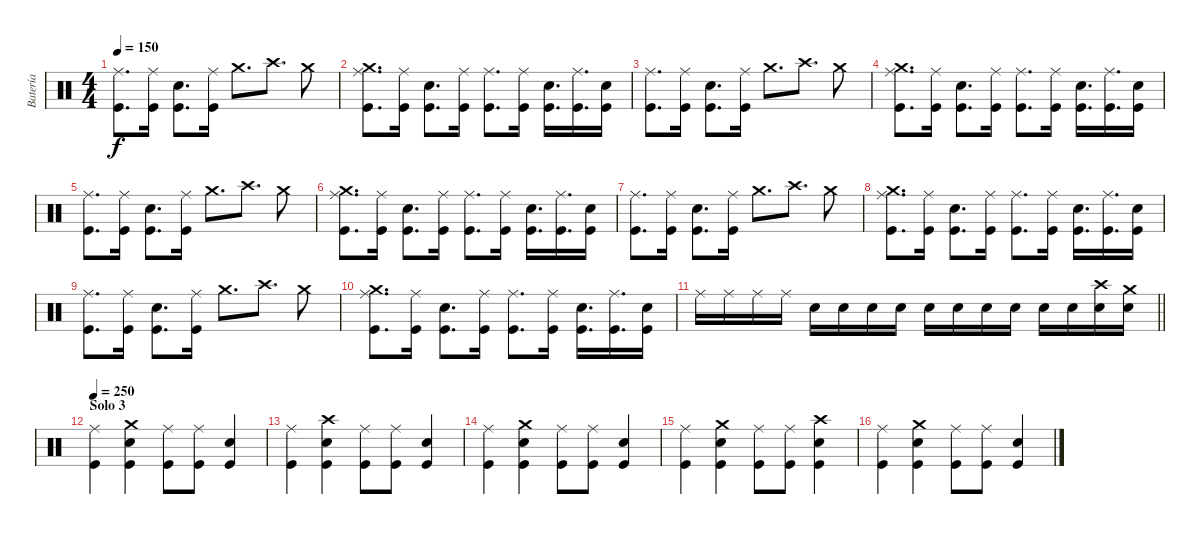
\track ("Batería" "Batería") {instrument percussion}
\staff {score}
\articulation defaults
\ts (4 4)
\tempo 150
\clef neutral
\ks c
("Ride (middle)" "Kick (hit)").8{d dy f} ("Ride (middle)" "Kick (hit)").16 ("Electric Snare (hit)" "Kick (hit)").8{d} ("Ride (middle)" "Kick (hit)").16 "Crash medium (hit)".8{d} "Crash high (hit)".8{d} "Crash medium (hit)".8 |
("Ride (middle)" "Crash medium (hit)" "Kick (hit)").8{d} ("Ride (middle)" "Kick (hit)").16 ("Electric Snare (hit)" "Kick (hit)").8{d} ("Ride (middle)" "Kick (hit)").16 ("Ride (middle)" "Kick (hit)").8{d} ("Ride (middle)" "Kick (hit)").16 ("Electric Snare (hit)" "Kick (hit)").16{d} ("Ride (middle)" "Kick (hit)").16{d} ("Electric Snare (hit)" "Kick (hit)").16 |
("Ride (middle)" "Kick (hit)").8{d} ("Ride (middle)" "Kick (hit)").16 ("Electric Snare (hit)" "Kick (hit)").8{d} ("Ride (middle)" "Kick (hit)").16 "Crash medium (hit)".8{d} "Crash high (hit)".8{d} "Crash medium (hit)".8 |
("Ride (middle)" "Crash medium (hit)" "Kick (hit)").8{d} ("Ride (middle)" "Kick (hit)").16 ("Electric Snare (hit)" "Kick (hit)").8{d} ("Ride (middle)" "Kick (hit)").16 ("Ride (middle)" "Kick (hit)").8{d} ("Ride (middle)" "Kick (hit)").16 ("Electric Snare (hit)" "Kick (hit)").16{d} ("Ride (middle)" "Kick (hit)").16{d} ("Electric Snare (hit)" "Kick (hit)").16 |
("Ride (middle)" "Kick (hit)").8{d} ("Ride (middle)" "Kick (hit)").16 ("Electric Snare (hit)" "Kick (hit)").8{d} ("Ride (middle)" "Kick (hit)").16 "Crash medium (hit)".8{d} "Crash high (hit)".8{d} "Crash medium (hit)".8 |
("Ride (middle)" "Crash medium (hit)" "Kick (hit)").8{d} ("Ride (middle)" "Kick (hit)").16 ("Electric Snare (hit)" "Kick (hit)").8{d} ("Ride (middle)" "Kick (hit)").16 ("Ride (middle)" "Kick (hit)").8{d} ("Ride (middle)" "Kick (hit)").16 ("Electric Snare (hit)" "Kick (hit)").16{d} ("Ride (middle)" "Kick (hit)").16{d} ("Electric Snare (hit)" "Kick (hit)").16 |
("Ride (middle)" "Kick (hit)").8{d} ("Ride (middle)" "Kick (hit)").16 ("Electric Snare (hit)" "Kick (hit)").8{d} ("Ride (middle)" "Kick (hit)").16 "Crash medium (hit)".8{d} "Crash high (hit)".8{d} "Crash medium (hit)".8 |
("Ride (middle)" "Crash medium (hit)" "Kick (hit)").8{d} ("Ride (middle)" "Kick (hit)").16 ("Electric Snare (hit)" "Kick (hit)").8{d} ("Ride (middle)" "Kick (hit)").16 ("Ride (middle)" "Kick (hit)").8{d} ("Ride (middle)" "Kick (hit)").16 ("Electric Snare (hit)" "Kick (hit)").16{d} ("Ride (middle)" "Kick (hit)").16{d} ("Electric Snare (hit)" "Kick (hit)").16 |
("Ride (middle)" "Kick (hit)").8{d} ("Ride (middle)" "Kick (hit)").16 ("Electric Snare (hit)" "Kick (hit)").8{d} ("Ride (middle)" "Kick (hit)").16 "Crash medium (hit)".8{d} "Crash high (hit)".8{d} "Crash medium (hit)".8 |
("Ride (middle)" "Crash medium (hit)" "Kick (hit)").8{d} ("Ride (middle)" "Kick (hit)").16 ("Electric Snare (hit)" "Kick (hit)").8{d} ("Ride (middle)" "Kick (hit)").16 ("Ride (middle)" "Kick (hit)").8{d} ("Ride (middle)" "Kick (hit)").16 ("Electric Snare (hit)" "Kick (hit)").16{d} ("Ride (middle)" "Kick (hit)").16{d} ("Electric Snare (hit)" "Kick (hit)").16 |
\barLineRight lightlight "Ride (middle)".16 "Ride (middle)".16 "Ride (middle)".16 "Ride (middle)".16 "Electric Snare (hit)".16 "Electric Snare (hit)".16 "Electric Snare (hit)".16 "Electric Snare (hit)".16 "Snare (hit) 2".16 "Snare (hit) 2".16 "Snare (hit) 2".16 "Snare (hit) 2".16 "Electric Snare (hit)".16 "Electric Snare (hit)".16
("Crash high (hit)" "Electric Snare (hit)").16 ("Crash medium (hit)" "Electric Snare (hit)").16 |
\section ("" "Solo 3")
\tempo 250
("Ride (middle)" "Kick (hit)").4 ("Electric Snare (hit)" "Crash medium (hit)" "Kick (hit)").4 ("Ride (middle)" "Kick (hit)").8 ("Ride (middle)" "Kick (hit)").8 ("Electric Snare (hit)" "Kick (hit)").4 |
("Ride (middle)" "Kick (hit)").4 ("Electric Snare (hit)" "Crash high (hit)" "Kick (hit)").4 ("Ride (middle)" "Kick (hit)").8 ("Ride (middle)" "Kick (hit)").8 ("Electric Snare (hit)" "Kick (hit)").4 |
("Ride (middle)" "Kick (hit)").4 ("Electric Snare (hit)" "Crash medium (hit)" "Kick (hit)").4 ("Ride (middle)" "Kick (hit)").8 ("Ride (middle)" "Kick (hit)").8 ("Electric Snare (hit)" "Kick (hit)").4 |
("Ride (middle)" "Kick (hit)").4 ("Electric Snare (hit)" "Crash medium (hit)" "Kick (hit)").4 ("Ride (middle)" "Kick (hit)").8 ("Ride (middle)" "Kick (hit)").8 ("Electric Snare (hit)" "Crash high (hit)" "Kick (hit)").4 |
("Ride (middle)" "Kick (hit)").4 ("Electric Snare (hit)" "Crash medium (hit)" "Kick (hit)").4 ("Ride (middle)" "Kick (hit)").8 ("Ride (middle)" "Kick (hit)").8 ("Electric Snare (hit)" "Kick (hit)").4
